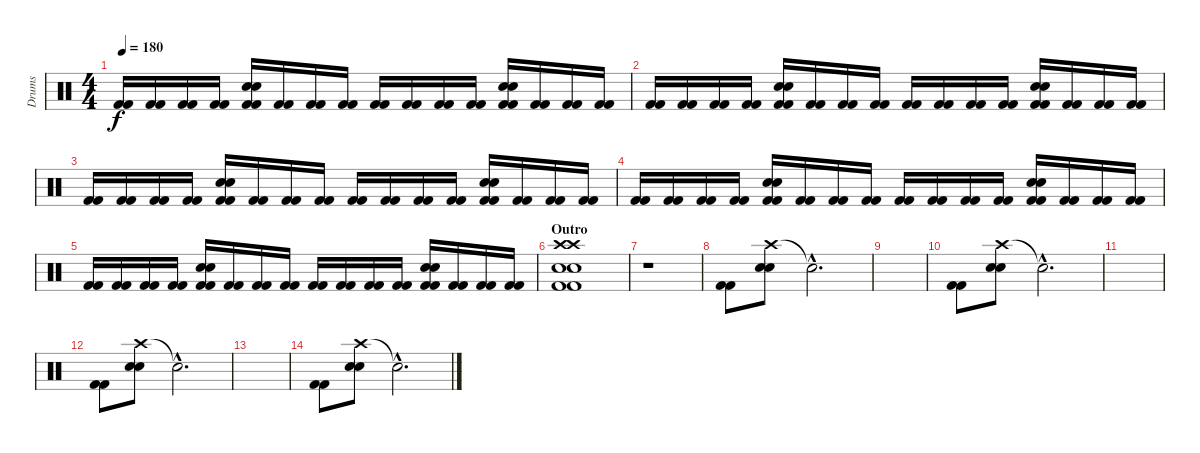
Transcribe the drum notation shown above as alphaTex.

\track ("Drums" "Drums") {instrument percussion}
\staff {score}
\articulation defaults
\ts (4 4)
\tempo 180
\clef neutral
\ks c
("Kick (hit) 2" "Kick (hit) 2").16{dy f} ("Kick (hit) 2" "Kick (hit) 2").16 ("Kick (hit) 2" "Kick (hit) 2").16 ("Kick (hit) 2" "Kick (hit) 2").16 ("Electric Snare (hit)" "Electric Snare (hit)" "Kick (hit) 2" "Kick (hit) 2").16 ("Kick (hit) 2" "Kick (hit) 2").16 ("Kick (hit) 2" "Kick (hit) 2").16 ("Kick (hit) 2" "Kick (hit) 2").16 ("Kick (hit) 2" "Kick (hit) 2").16 ("Kick (hit) 2" "Kick (hit) 2").16 ("Kick (hit) 2" "Kick (hit) 2").16 ("Kick (hit) 2" "Kick (hit) 2").16 ("Electric Snare (hit)" "Electric Snare (hit)" "Kick (hit) 2" "Kick (hit) 2").16 ("Kick (hit) 2" "Kick (hit) 2").16 ("Kick (hit) 2" "Kick (hit) 2").16 ("Kick (hit) 2" "Kick (hit) 2").16 |
("Kick (hit) 2" "Kick (hit) 2").16 ("Kick (hit) 2" "Kick (hit) 2").16 ("Kick (hit) 2" "Kick (hit) 2").16 ("Kick (hit) 2" "Kick (hit) 2").16 ("Electric Snare (hit)" "Electric Snare (hit)" "Kick (hit) 2" "Kick (hit) 2").16 ("Kick (hit) 2" "Kick (hit) 2").16 ("Kick (hit) 2" "Kick (hit) 2").16 ("Kick (hit) 2" "Kick (hit) 2").16 ("Kick (hit) 2" "Kick (hit) 2").16 ("Kick (hit) 2" "Kick (hit) 2").16 ("Kick (hit) 2" "Kick (hit) 2").16 ("Kick (hit) 2" "Kick (hit) 2").16 ("Electric Snare (hit)" "Electric Snare (hit)" "Kick (hit) 2" "Kick (hit) 2").16 ("Kick (hit) 2" "Kick (hit) 2").16 ("Kick (hit) 2" "Kick (hit) 2").16 ("Kick (hit) 2" "Kick (hit) 2").16 |
("Kick (hit) 2" "Kick (hit) 2").16 ("Kick (hit) 2" "Kick (hit) 2").16 ("Kick (hit) 2" "Kick (hit) 2").16 ("Kick (hit) 2" "Kick (hit) 2").16 ("Electric Snare (hit)" "Electric Snare (hit)" "Kick (hit) 2" "Kick (hit) 2").16 ("Kick (hit) 2" "Kick (hit) 2").16 ("Kick (hit) 2" "Kick (hit) 2").16 ("Kick (hit) 2" "Kick (hit) 2").16 ("Kick (hit) 2" "Kick (hit) 2").16 ("Kick (hit) 2" "Kick (hit) 2").16 ("Kick (hit) 2" "Kick (hit) 2").16 ("Kick (hit) 2" "Kick (hit) 2").16 ("Electric Snare (hit)" "Electric Snare (hit)" "Kick (hit) 2" "Kick (hit) 2").16 ("Kick (hit) 2" "Kick (hit) 2").16 ("Kick (hit) 2" "Kick (hit) 2").16 ("Kick (hit) 2" "Kick (hit) 2").16 |
("Kick (hit) 2" "Kick (hit) 2").16 ("Kick (hit) 2" "Kick (hit) 2").16 ("Kick (hit) 2" "Kick (hit) 2").16 ("Kick (hit) 2" "Kick (hit) 2").16 ("Electric Snare (hit)" "Electric Snare (hit)" "Kick (hit) 2" "Kick (hit) 2").16 ("Kick (hit) 2" "Kick (hit) 2").16 ("Kick (hit) 2" "Kick (hit) 2").16 ("Kick (hit) 2" "Kick (hit) 2").16 ("Kick (hit) 2" "Kick (hit) 2").16 ("Kick (hit) 2" "Kick (hit) 2").16 ("Kick (hit) 2" "Kick (hit) 2").16 ("Kick (hit) 2" "Kick (hit) 2").16 ("Electric Snare (hit)" "Electric Snare (hit)" "Kick (hit) 2" "Kick (hit) 2").16 ("Kick (hit) 2" "Kick (hit) 2").16 ("Kick (hit) 2" "Kick (hit) 2").16 ("Kick (hit) 2" "Kick (hit) 2").16 |
("Kick (hit) 2" "Kick (hit) 2").16 ("Kick (hit) 2" "Kick (hit) 2").16 ("Kick (hit) 2" "Kick (hit) 2").16 ("Kick (hit) 2" "Kick (hit) 2").16 ("Electric Snare (hit)" "Electric Snare (hit)" "Kick (hit) 2" "Kick (hit) 2").16 ("Kick (hit) 2" "Kick (hit) 2").16 ("Kick (hit) 2" "Kick (hit) 2").16 ("Kick (hit) 2" "Kick (hit) 2").16 ("Kick (hit) 2" "Kick (hit) 2").16 ("Kick (hit) 2" "Kick (hit) 2").16 ("Kick (hit) 2" "Kick (hit) 2").16 ("Kick (hit) 2" "Kick (hit) 2").16 ("Electric Snare (hit)" "Electric Snare (hit)" "Kick (hit) 2" "Kick (hit) 2").16 ("Kick (hit) 2" "Kick (hit) 2").16 ("Kick (hit) 2" "Kick (hit) 2").16 ("Kick (hit) 2" "Kick (hit) 2").16 |
\section ("" "Outro")
("Crash high (hit)" "Crash high (hit)" "Electric Snare (hit)" "Electric Snare (hit)" "Kick (hit) 2" "Kick (hit) 2").1 |
r.1 |
("Kick (hit) 2" "Kick (hit) 2").8{volume 11} ("Crash high (hit)" "Electric Snare (hit)" "Electric Snare (hit)").8 "Snare (hit)"{hac t}.2{d} |
|
("Kick (hit) 2" "Kick (hit) 2").8{volume 8} ("Crash high (hit)" "Electric Snare (hit)" "Electric Snare (hit)").8 "Snare (hit)"{hac t}.2{d} |
|
("Kick (hit) 2" "Kick (hit) 2").8{volume 5} ("Crash high (hit)" "Electric Snare (hit)" "Electric Snare (hit)").8 "Snare (hit)"{hac t}.2{d} |
|
("Kick (hit) 2" "Kick (hit) 2").8{volume 0} ("Crash high (hit)" "Electric Snare (hit)" "Electric Snare (hit)").8 "Snare (hit)"{hac t}.2{d}
